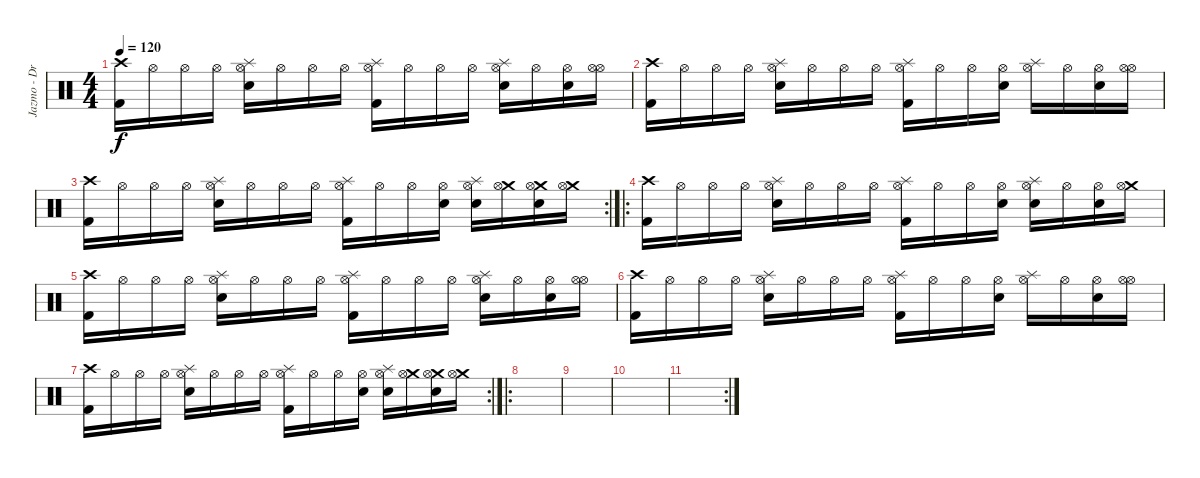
\track ("Jazmo - Drums" "Jazmo - Dr") {instrument percussion}
\staff {score}
\articulation defaults
\ts (4 4)
\tempo 120
\clef neutral
\ks c
("Crash high (hit)" "Kick (hit) 2").16{dy f} "Hi-Hat (open)".16 "Hi-Hat (open)".16 "Hi-Hat (open)".16 ("Splash (hit)" "Hi-Hat (open)" "Electric Snare (hit)").16 "Hi-Hat (open)".16 "Hi-Hat (open)".16 "Hi-Hat (open)".16 ("Splash (hit)" "Hi-Hat (open)" "Kick (hit) 2").16 "Hi-Hat (open)".16 "Hi-Hat (open)".16 "Hi-Hat (open)".16 ("Splash (hit)" "Hi-Hat (open)" "Electric Snare (hit)").16 "Hi-Hat (open)".16 ("Hi-Hat (open)" "Electric Snare (hit)").16 ("Hi-Hat (open)" "Hi-Hat (open)").16 |
("Crash high (hit)" "Kick (hit) 2").16 "Hi-Hat (open)".16 "Hi-Hat (open)".16 "Hi-Hat (open)".16 ("Splash (hit)" "Hi-Hat (open)" "Electric Snare (hit)").16 "Hi-Hat (open)".16 "Hi-Hat (open)".16 "Hi-Hat (open)".16 ("Splash (hit)" "Hi-Hat (open)" "Kick (hit) 2").16 "Hi-Hat (open)".16 "Hi-Hat (open)".16 ("Hi-Hat (open)" "Electric Snare (hit)").16 ("Splash (hit)" "Hi-Hat (open)").16 "Hi-Hat (open)".16 ("Hi-Hat (open)" "Electric Snare (hit)").16 ("Hi-Hat (open)" "Hi-Hat (open)").16 |
\rc 2
("Crash high (hit)" "Kick (hit) 2").16 "Hi-Hat (open)".16 "Hi-Hat (open)".16 "Hi-Hat (open)".16 ("Splash (hit)" "Hi-Hat (open)" "Electric Snare (hit)").16 "Hi-Hat (open)".16 "Hi-Hat (open)".16 "Hi-Hat (open)".16 ("Splash (hit)" "Hi-Hat (open)" "Kick (hit) 2").16 "Hi-Hat (open)".16 "Hi-Hat (open)".16 ("Hi-Hat (open)" "Electric Snare (hit)").16 ("Splash (hit)" "Hi-Hat (open)" "Electric Snare (hit)").16 ("Crash medium (hit)" "Hi-Hat (open)").16 ("Crash medium (hit)" "Hi-Hat (open)" "Electric Snare (hit)").16 ("Crash medium (hit)" "Hi-Hat (open)").16 |
\ro
("Crash high (hit)" "Kick (hit) 2").16 "Hi-Hat (open)".16 "Hi-Hat (open)".16 "Hi-Hat (open)".16 ("Splash (hit)" "Hi-Hat (open)" "Electric Snare (hit)").16 "Hi-Hat (open)".16 "Hi-Hat (open)".16 "Hi-Hat (open)".16 ("Splash (hit)" "Hi-Hat (open)" "Kick (hit) 2").16 "Hi-Hat (open)".16 "Hi-Hat (open)".16 ("Hi-Hat (open)" "Electric Snare (hit)").16 ("Splash (hit)" "Hi-Hat (open)" "Electric Snare (hit)").16 "Hi-Hat (open)".16 ("Hi-Hat (open)" "Electric Snare (hit)").16 ("Crash medium (hit)" "Hi-Hat (open)").16 |
("Crash high (hit)" "Kick (hit) 2").16 "Hi-Hat (open)".16 "Hi-Hat (open)".16 "Hi-Hat (open)".16 ("Splash (hit)" "Hi-Hat (open)" "Electric Snare (hit)").16 "Hi-Hat (open)".16 "Hi-Hat (open)".16 "Hi-Hat (open)".16 ("Splash (hit)" "Hi-Hat (open)" "Kick (hit) 2").16 "Hi-Hat (open)".16 "Hi-Hat (open)".16 "Hi-Hat (open)".16 ("Splash (hit)" "Hi-Hat (open)" "Electric Snare (hit)").16 "Hi-Hat (open)".16 ("Hi-Hat (open)" "Electric Snare (hit)").16 ("Hi-Hat (open)" "Hi-Hat (open)").16 |
("Crash high (hit)" "Kick (hit) 2").16 "Hi-Hat (open)".16 "Hi-Hat (open)".16 "Hi-Hat (open)".16 ("Splash (hit)" "Hi-Hat (open)" "Electric Snare (hit)").16 "Hi-Hat (open)".16 "Hi-Hat (open)".16 "Hi-Hat (open)".16 ("Splash (hit)" "Hi-Hat (open)" "Kick (hit) 2").16 "Hi-Hat (open)".16 "Hi-Hat (open)".16 ("Hi-Hat (open)" "Electric Snare (hit)").16 ("Splash (hit)" "Hi-Hat (open)").16 "Hi-Hat (open)".16 ("Hi-Hat (open)" "Electric Snare (hit)").16 ("Hi-Hat (open)" "Hi-Hat (open)").16 |
\rc 2
("Crash high (hit)" "Kick (hit) 2").16 "Hi-Hat (open)".16 "Hi-Hat (open)".16 "Hi-Hat (open)".16 ("Splash (hit)" "Hi-Hat (open)" "Electric Snare (hit)").16 "Hi-Hat (open)".16 "Hi-Hat (open)".16 "Hi-Hat (open)".16 ("Splash (hit)" "Hi-Hat (open)" "Kick (hit) 2").16 "Hi-Hat (open)".16 "Hi-Hat (open)".16 ("Hi-Hat (open)" "Electric Snare (hit)").16 ("Splash (hit)" "Hi-Hat (open)" "Electric Snare (hit)").16 ("Crash medium (hit)" "Hi-Hat (open)").16 ("Crash medium (hit)" "Hi-Hat (open)" "Electric Snare (hit)").16 ("Crash medium (hit)" "Hi-Hat (open)").16 |
\ro
|
|
|
\rc 2
